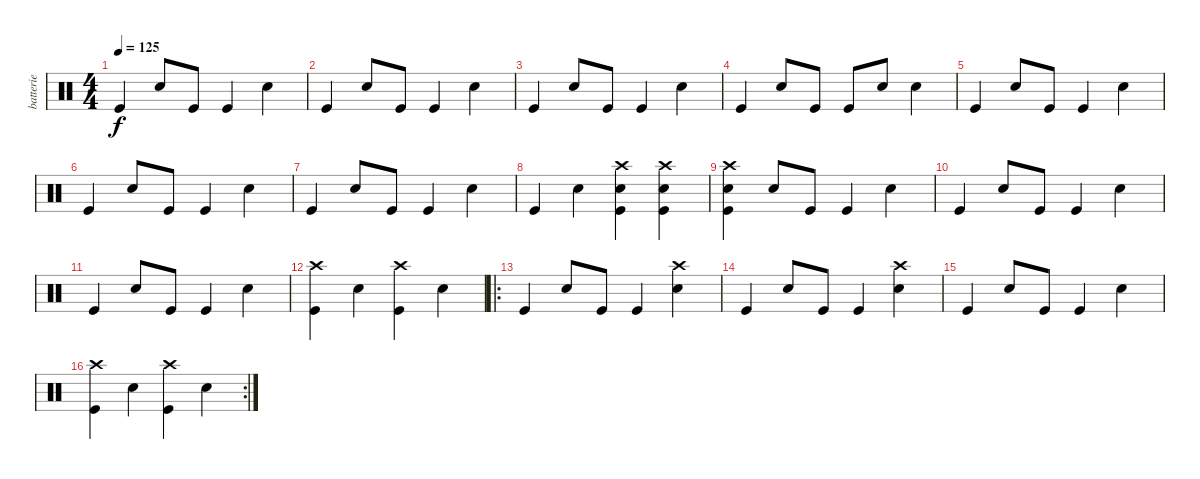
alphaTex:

\track ("batterie" "batterie") {instrument percussion}
\staff {score}
\articulation defaults
\ts (4 4)
\tempo 125
\clef neutral
\ks c "Kick (hit)".4{dy f} "Snare (hit) 2".8 "Kick (hit)".8 "Kick (hit)".4 "Snare (hit) 2".4
|
"Kick (hit)".4 "Snare (hit) 2".8 "Kick (hit)".8 "Kick (hit)".4 "Snare (hit) 2".4 |
"Kick (hit)".4 "Snare (hit) 2".8 "Kick (hit)".8 "Kick (hit)".4 "Snare (hit) 2".4 |
"Kick (hit)".4 "Snare (hit) 2".8 "Kick (hit)".8 "Kick (hit)".8 "Snare (hit) 2".8 "Snare (hit) 2".4 |
"Kick (hit)".4 "Snare (hit) 2".8 "Kick (hit)".8 "Kick (hit)".4 "Snare (hit) 2".4 |
"Kick (hit)".4 "Snare (hit) 2".8 "Kick (hit)".8 "Kick (hit)".4 "Snare (hit) 2".4 |
"Kick (hit)".4 "Snare (hit) 2".8 "Kick (hit)".8 "Kick (hit)".4 "Snare (hit) 2".4 |
"Kick (hit)".4 "Snare (hit) 2".4 ("Crash high (hit)" "Snare (hit) 2" "Kick (hit)").4 ("Crash high (hit)" "Snare (hit) 2" "Kick (hit)").4 |
("Crash high (hit)" "Snare (hit) 2" "Kick (hit)").4 "Snare (hit) 2".8 "Kick (hit)".8 "Kick (hit)".4 "Snare (hit) 2".4 |
"Kick (hit)".4 "Snare (hit) 2".8 "Kick (hit)".8 "Kick (hit)".4 "Snare (hit) 2".4 |
"Kick (hit)".4 "Snare (hit) 2".8 "Kick (hit)".8 "Kick (hit)".4 "Snare (hit) 2".4 |
("Crash high (hit)" "Kick (hit)").4 "Snare (hit) 2".4 ("Crash high (hit)" "Kick (hit)").4 "Snare (hit) 2".4 |
\ro "Kick (hit)".4 "Snare (hit) 2".8 "Kick (hit)".8 "Kick (hit)".4
("Crash high (hit)" "Snare (hit) 2").4 |
"Kick (hit)".4 "Snare (hit) 2".8 "Kick (hit)".8 "Kick (hit)".4 ("Crash high (hit)" "Snare (hit) 2").4 |
"Kick (hit)".4 "Snare (hit) 2".8 "Kick (hit)".8 "Kick (hit)".4 "Snare (hit) 2".4 |
\rc 2
("Crash high (hit)" "Kick (hit)").4 "Snare (hit) 2".4 ("Crash high (hit)" "Kick (hit)").4 "Snare (hit) 2".4
